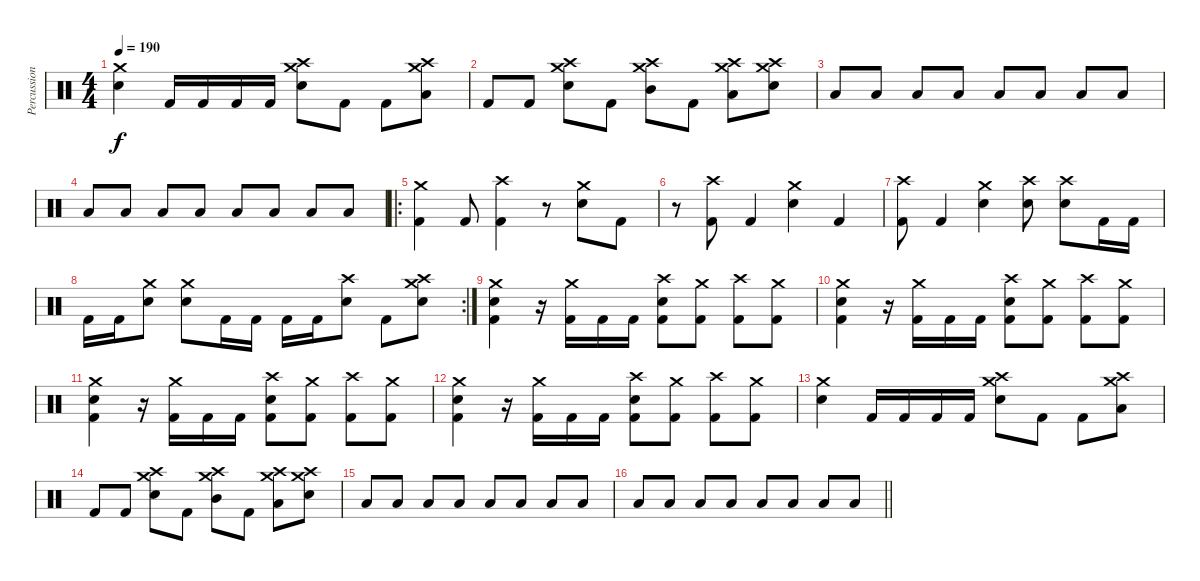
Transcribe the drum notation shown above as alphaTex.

\track ("Percussion" "Percussion") {instrument percussion}
\staff {score}
\articulation defaults
\ts (4 4)
\tempo 190
\clef neutral
\ks c
("Crash medium (hit)" "Electric Snare (hit)").4{dy f} "Kick (hit) 2".16 "Kick (hit) 2".16 "Kick (hit) 2".16 "Kick (hit) 2".16 ("Crash high (hit)" "Crash medium (hit)" "Electric Snare (hit)").8 "Kick (hit) 2".8 "Kick (hit) 2".8 ("Crash high (hit)" "Crash medium (hit)" "Low Tom (hit)").8 |
"Kick (hit) 2".8 "Kick (hit) 2".8 ("Crash high (hit)" "Crash medium (hit)" "Electric Snare (hit)").8 "Kick (hit) 2".8 ("Crash high (hit)" "Crash medium (hit)" "Mid Tom (hit)").8 "Kick (hit) 2".8 ("Crash high (hit)" "Crash medium (hit)" "Low Tom (hit)").8 ("Crash high (hit)" "Crash medium (hit)" "Electric Snare (hit)").8 |
"Low Tom (hit)".8 "Low Tom (hit)".8 "Low Tom (hit)".8 "Low Tom (hit)".8 "Low Tom (hit)".8 "Low Tom (hit)".8 "Low Tom (hit)".8 "Low Tom (hit)".8 |
"Low Tom (hit)".8 "Low Tom (hit)".8 "Low Tom (hit)".8 "Low Tom (hit)".8 "Low Tom (hit)".8 "Low Tom (hit)".8 "Low Tom (hit)".8 "Low Tom (hit)".8 |
\ro
("Crash medium (hit)" "Kick (hit) 2").4 "Kick (hit) 2".8 ("Crash high (hit)" "Kick (hit) 2").4 r.8 ("Crash medium (hit)" "Electric Snare (hit)").8 "Kick (hit) 2".8 |
r.8 ("Crash high (hit)" "Kick (hit) 2").8 "Kick (hit) 2".4 ("Crash medium (hit)" "Electric Snare (hit)").4 "Kick (hit) 2".4 |
("Crash high (hit)" "Kick (hit) 2").8 "Kick (hit) 2".4 ("Crash medium (hit)" "Electric Snare (hit)").4 ("Crash high (hit)" "Electric Snare (hit)").8 ("Crash high (hit)" "Electric Snare (hit)").8 "Kick (hit) 2".16 "Kick (hit) 2".16 |
\rc 2 "Kick (hit) 2".16 "Kick (hit) 2".16
("Crash medium (hit)" "Electric Snare (hit)").8 ("Crash medium (hit)" "Electric Snare (hit)").8 "Kick (hit) 2".16 "Kick (hit) 2".16 "Kick (hit) 2".16 "Kick (hit) 2".16 ("Crash high (hit)" "Electric Snare (hit)").8 "Kick (hit) 2".8 ("Crash high (hit)" "Crash medium (hit)" "Electric Snare (hit)").8 |
("Crash medium (hit)" "Electric Snare (hit)" "Kick (hit) 2").4 r.16 ("Crash medium (hit)" "Kick (hit) 2").16 "Kick (hit) 2".16 "Kick (hit) 2".16 ("Crash high (hit)" "Electric Snare (hit)" "Kick (hit) 2").8 ("Crash medium (hit)" "Kick (hit) 2").8 ("Crash high (hit)" "Kick (hit) 2").8 ("Crash medium (hit)" "Kick (hit) 2").8 |
("Crash medium (hit)" "Electric Snare (hit)" "Kick (hit) 2").4 r.16 ("Crash medium (hit)" "Kick (hit) 2").16 "Kick (hit) 2".16 "Kick (hit) 2".16 ("Crash high (hit)" "Electric Snare (hit)" "Kick (hit) 2").8 ("Crash medium (hit)" "Kick (hit) 2").8 ("Crash high (hit)" "Kick (hit) 2").8 ("Crash medium (hit)" "Kick (hit) 2").8 |
("Crash medium (hit)" "Electric Snare (hit)" "Kick (hit) 2").4 r.16 ("Crash medium (hit)" "Kick (hit) 2").16 "Kick (hit) 2".16 "Kick (hit) 2".16 ("Crash high (hit)" "Electric Snare (hit)" "Kick (hit) 2").8 ("Crash medium (hit)" "Kick (hit) 2").8 ("Crash high (hit)" "Kick (hit) 2").8 ("Crash medium (hit)" "Kick (hit) 2").8 |
("Crash medium (hit)" "Electric Snare (hit)" "Kick (hit) 2").4 r.16 ("Crash medium (hit)" "Kick (hit) 2").16 "Kick (hit) 2".16 "Kick (hit) 2".16 ("Crash high (hit)" "Electric Snare (hit)" "Kick (hit) 2").8 ("Crash medium (hit)" "Kick (hit) 2").8 ("Crash high (hit)" "Kick (hit) 2").8 ("Crash medium (hit)" "Kick (hit) 2").8 |
("Crash medium (hit)" "Electric Snare (hit)").4 "Kick (hit) 2".16 "Kick (hit) 2".16 "Kick (hit) 2".16 "Kick (hit) 2".16 ("Crash high (hit)" "Crash medium (hit)" "Electric Snare (hit)").8 "Kick (hit) 2".8 "Kick (hit) 2".8 ("Crash high (hit)" "Crash medium (hit)" "Low Tom (hit)").8 |
"Kick (hit) 2".8 "Kick (hit) 2".8 ("Crash high (hit)" "Crash medium (hit)" "Electric Snare (hit)").8 "Kick (hit) 2".8 ("Crash high (hit)" "Crash medium (hit)" "Mid Tom (hit)").8 "Kick (hit) 2".8 ("Crash high (hit)" "Crash medium (hit)" "Low Tom (hit)").8 ("Crash high (hit)" "Crash medium (hit)" "Electric Snare (hit)").8 |
"Low Tom (hit)".8 "Low Tom (hit)".8 "Low Tom (hit)".8 "Low Tom (hit)".8 "Low Tom (hit)".8 "Low Tom (hit)".8 "Low Tom (hit)".8 "Low Tom (hit)".8 |
\barLineRight lightlight "Low Tom (hit)".8 "Low Tom (hit)".8 "Low Tom (hit)".8 "Low Tom (hit)".8 "Low Tom (hit)".8 "Low Tom (hit)".8 "Low Tom (hit)".8 "Low Tom (hit)".8
